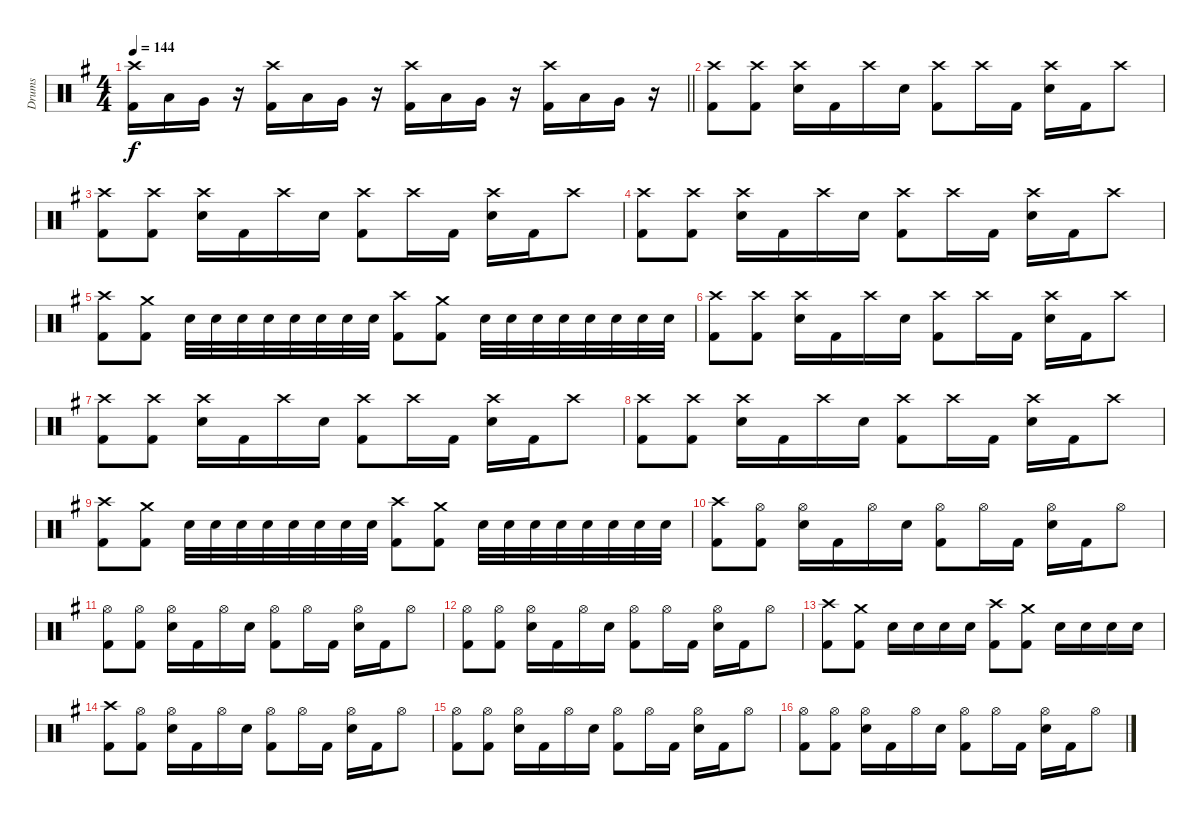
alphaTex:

\track ("Drums" "Drums") {instrument percussion}
\staff {score}
\articulation defaults
\ts (4 4)
\tempo 144
\clef neutral
\barLineRight lightlight
\ks eminor
("Crash high (hit)" "Kick (hit) 2").16{dy f} "Low Tom (hit)".16 "Very Low Tom (hit)".16 r.16 ("Crash high (hit)" "Kick (hit) 2").16 "Low Tom (hit)".16 "Very Low Tom (hit)".16 r.16 ("Crash high (hit)" "Kick (hit) 2").16 "Low Tom (hit)".16 "Very Low Tom (hit)".16 r.16 ("Crash high (hit)" "Kick (hit) 2").16 "Low Tom (hit)".16 "Very Low Tom (hit)".16 r.16 |
("Crash high (hit)" "Kick (hit) 2").8 ("Crash high (hit)" "Kick (hit) 2").8 ("Crash high (hit)" "Snare (hit) 2").16 "Kick (hit) 2".16 "Crash high (hit)".16 "Snare (hit) 2".16 ("Crash high (hit)" "Kick (hit) 2").8 "Crash high (hit)".16 "Kick (hit) 2".16 ("Crash high (hit)" "Snare (hit) 2").16 "Kick (hit) 2".16 "Crash high (hit)".8 |
("Crash high (hit)" "Kick (hit) 2").8 ("Crash high (hit)" "Kick (hit) 2").8 ("Crash high (hit)" "Snare (hit) 2").16 "Kick (hit) 2".16 "Crash high (hit)".16 "Snare (hit) 2".16 ("Crash high (hit)" "Kick (hit) 2").8 "Crash high (hit)".16 "Kick (hit) 2".16 ("Crash high (hit)" "Snare (hit) 2").16 "Kick (hit) 2".16 "Crash high (hit)".8 |
("Crash high (hit)" "Kick (hit) 2").8 ("Crash high (hit)" "Kick (hit) 2").8 ("Crash high (hit)" "Snare (hit) 2").16 "Kick (hit) 2".16 "Crash high (hit)".16 "Snare (hit) 2".16 ("Crash high (hit)" "Kick (hit) 2").8 "Crash high (hit)".16 "Kick (hit) 2".16 ("Crash high (hit)" "Snare (hit) 2").16 "Kick (hit) 2".16 "Crash high (hit)".8 |
("Crash high (hit)" "Kick (hit) 2").8 ("Crash medium (hit)" "Kick (hit) 2").8 "Snare (hit) 2".32 "Snare (hit) 2".32 "Snare (hit) 2".32 "Snare (hit) 2".32 "Snare (hit) 2".32 "Snare (hit) 2".32 "Snare (hit) 2".32 "Snare (hit) 2".32 ("Crash high (hit)" "Kick (hit) 2").8 ("Crash medium (hit)" "Kick (hit) 2").8 "Snare (hit) 2".32 "Snare (hit) 2".32 "Snare (hit) 2".32 "Snare (hit) 2".32 "Snare (hit) 2".32 "Snare (hit) 2".32 "Snare (hit) 2".32 "Snare (hit) 2".32 |
("Crash high (hit)" "Kick (hit) 2").8 ("Crash high (hit)" "Kick (hit) 2").8 ("Crash high (hit)" "Snare (hit) 2").16 "Kick (hit) 2".16 "Crash high (hit)".16 "Snare (hit) 2".16 ("Crash high (hit)" "Kick (hit) 2").8 "Crash high (hit)".16 "Kick (hit) 2".16 ("Crash high (hit)" "Snare (hit) 2").16 "Kick (hit) 2".16 "Crash high (hit)".8 |
("Crash high (hit)" "Kick (hit) 2").8 ("Crash high (hit)" "Kick (hit) 2").8 ("Crash high (hit)" "Snare (hit) 2").16 "Kick (hit) 2".16 "Crash high (hit)".16 "Snare (hit) 2".16 ("Crash high (hit)" "Kick (hit) 2").8 "Crash high (hit)".16 "Kick (hit) 2".16 ("Crash high (hit)" "Snare (hit) 2").16 "Kick (hit) 2".16 "Crash high (hit)".8 |
("Crash high (hit)" "Kick (hit) 2").8 ("Crash high (hit)" "Kick (hit) 2").8 ("Crash high (hit)" "Snare (hit) 2").16 "Kick (hit) 2".16 "Crash high (hit)".16 "Snare (hit) 2".16 ("Crash high (hit)" "Kick (hit) 2").8 "Crash high (hit)".16 "Kick (hit) 2".16 ("Crash high (hit)" "Snare (hit) 2").16 "Kick (hit) 2".16 "Crash high (hit)".8 |
("Crash high (hit)" "Kick (hit) 2").8 ("Crash medium (hit)" "Kick (hit) 2").8 "Snare (hit) 2".32 "Snare (hit) 2".32 "Snare (hit) 2".32 "Snare (hit) 2".32 "Snare (hit) 2".32 "Snare (hit) 2".32 "Snare (hit) 2".32 "Snare (hit) 2".32 ("Crash high (hit)" "Kick (hit) 2").8 ("Crash medium (hit)" "Kick (hit) 2").8 "Snare (hit) 2".32 "Snare (hit) 2".32 "Snare (hit) 2".32 "Snare (hit) 2".32 "Snare (hit) 2".32 "Snare (hit) 2".32 "Snare (hit) 2".32 "Snare (hit) 2".32 |
("Crash high (hit)" "Kick (hit) 2").8 ("Hi-Hat (open)" "Kick (hit) 2").8 ("Hi-Hat (open)" "Snare (hit) 2").16 "Kick (hit) 2".16 "Hi-Hat (open)".16 "Snare (hit) 2".16 ("Hi-Hat (open)" "Kick (hit) 2").8 "Hi-Hat (open)".16 "Kick (hit) 2".16 ("Hi-Hat (open)" "Snare (hit) 2").16 "Kick (hit) 2".16 "Hi-Hat (open)".8 |
("Hi-Hat (open)" "Kick (hit) 2").8 ("Hi-Hat (open)" "Kick (hit) 2").8 ("Hi-Hat (open)" "Snare (hit) 2").16 "Kick (hit) 2".16 "Hi-Hat (open)".16 "Snare (hit) 2".16 ("Hi-Hat (open)" "Kick (hit) 2").8 "Hi-Hat (open)".16 "Kick (hit) 2".16 ("Hi-Hat (open)" "Snare (hit) 2").16 "Kick (hit) 2".16 "Hi-Hat (open)".8 |
("Hi-Hat (open)" "Kick (hit) 2").8 ("Hi-Hat (open)" "Kick (hit) 2").8 ("Hi-Hat (open)" "Snare (hit) 2").16 "Kick (hit) 2".16 "Hi-Hat (open)".16 "Snare (hit) 2".16 ("Hi-Hat (open)" "Kick (hit) 2").8 "Hi-Hat (open)".16 "Kick (hit) 2".16 ("Hi-Hat (open)" "Snare (hit) 2").16 "Kick (hit) 2".16 "Hi-Hat (open)".8 |
("Crash high (hit)" "Kick (hit) 2").8 ("Crash medium (hit)" "Kick (hit) 2").8 "Snare (hit) 2".16 "Snare (hit) 2".16 "Snare (hit) 2".16 "Snare (hit) 2".16 ("Crash high (hit)" "Kick (hit) 2").8 ("Crash medium (hit)" "Kick (hit) 2").8 "Snare (hit) 2".16 "Snare (hit) 2".16 "Snare (hit) 2".16 "Snare (hit) 2".16 |
("Crash high (hit)" "Kick (hit) 2").8 ("Hi-Hat (open)" "Kick (hit) 2").8 ("Hi-Hat (open)" "Snare (hit) 2").16 "Kick (hit) 2".16 "Hi-Hat (open)".16 "Snare (hit) 2".16 ("Hi-Hat (open)" "Kick (hit) 2").8 "Hi-Hat (open)".16 "Kick (hit) 2".16 ("Hi-Hat (open)" "Snare (hit) 2").16 "Kick (hit) 2".16 "Hi-Hat (open)".8 |
("Hi-Hat (open)" "Kick (hit) 2").8 ("Hi-Hat (open)" "Kick (hit) 2").8 ("Hi-Hat (open)" "Snare (hit) 2").16 "Kick (hit) 2".16 "Hi-Hat (open)".16 "Snare (hit) 2".16 ("Hi-Hat (open)" "Kick (hit) 2").8 "Hi-Hat (open)".16 "Kick (hit) 2".16 ("Hi-Hat (open)" "Snare (hit) 2").16 "Kick (hit) 2".16 "Hi-Hat (open)".8 |
("Hi-Hat (open)" "Kick (hit) 2").8 ("Hi-Hat (open)" "Kick (hit) 2").8 ("Hi-Hat (open)" "Snare (hit) 2").16 "Kick (hit) 2".16 "Hi-Hat (open)".16 "Snare (hit) 2".16 ("Hi-Hat (open)" "Kick (hit) 2").8 "Hi-Hat (open)".16 "Kick (hit) 2".16 ("Hi-Hat (open)" "Snare (hit) 2").16 "Kick (hit) 2".16 "Hi-Hat (open)".8
